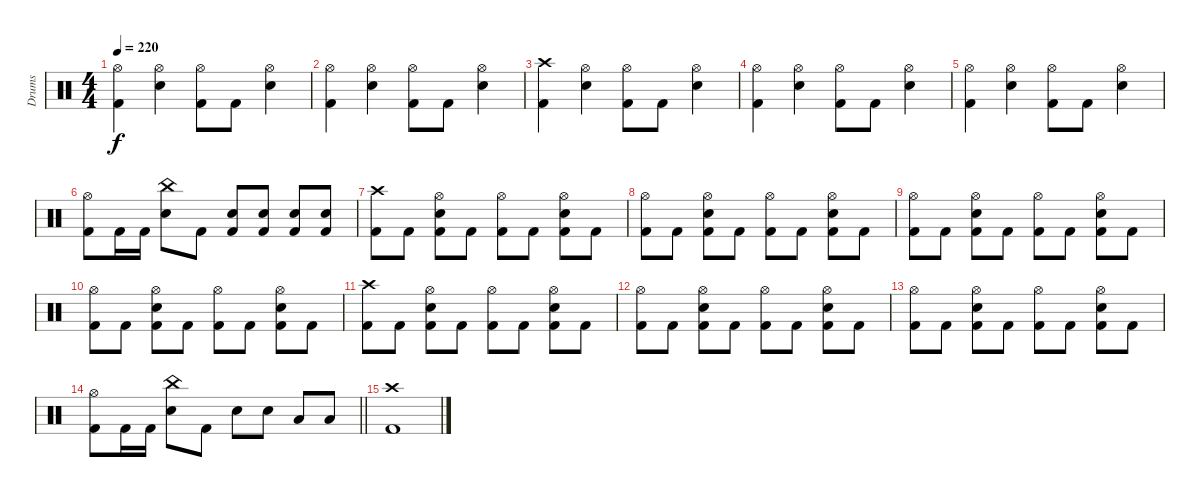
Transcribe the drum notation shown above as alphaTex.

\track ("Drums" "Drums") {instrument percussion}
\staff {score}
\articulation defaults
\ts (4 4)
\tempo 220
\clef neutral
\ks c
("Hi-Hat (open)" "Kick (hit) 2").4{dy f} ("Hi-Hat (open)" "Snare (hit) 2").4 ("Hi-Hat (open)" "Kick (hit) 2").8 "Kick (hit) 2".8 ("Hi-Hat (open)" "Snare (hit) 2").4 |
("Hi-Hat (open)" "Kick (hit) 2").4 ("Hi-Hat (open)" "Snare (hit) 2").4 ("Hi-Hat (open)" "Kick (hit) 2").8 "Kick (hit) 2".8 ("Hi-Hat (open)" "Snare (hit) 2").4 |
("Crash high (hit)" "Kick (hit) 2").4 ("Hi-Hat (open)" "Snare (hit) 2").4 ("Hi-Hat (open)" "Kick (hit) 2").8 "Kick (hit) 2".8 ("Hi-Hat (open)" "Snare (hit) 2").4 |
("Hi-Hat (open)" "Kick (hit) 2").4 ("Hi-Hat (open)" "Snare (hit) 2").4 ("Hi-Hat (open)" "Kick (hit) 2").8 "Kick (hit) 2".8 ("Hi-Hat (open)" "Snare (hit) 2").4 |
("Hi-Hat (open)" "Kick (hit) 2").4 ("Hi-Hat (open)" "Snare (hit) 2").4 ("Hi-Hat (open)" "Kick (hit) 2").8 "Kick (hit) 2".8 ("Hi-Hat (open)" "Snare (hit) 2").4 |
("Hi-Hat (open)" "Kick (hit) 2").8 "Kick (hit) 2".16 "Kick (hit) 2".16 ("China (hit)" "Snare (hit) 2").8 "Kick (hit) 2".8 ("Snare (hit) 2" "Kick (hit) 2").8 ("Snare (hit) 2" "Kick (hit) 2").8 ("Snare (hit) 2" "Kick (hit) 2").8 ("Snare (hit) 2" "Kick (hit) 2").8 |
("Crash high (hit)" "Kick (hit) 2").8 "Kick (hit) 2".8 ("Hi-Hat (open)" "Snare (hit) 2" "Kick (hit) 2").8 "Kick (hit) 2".8 ("Hi-Hat (open)" "Kick (hit) 2").8 "Kick (hit) 2".8 ("Hi-Hat (open)" "Snare (hit) 2" "Kick (hit) 2").8 "Kick (hit) 2".8 |
("Hi-Hat (open)" "Kick (hit) 2").8 "Kick (hit) 2".8 ("Hi-Hat (open)" "Snare (hit) 2" "Kick (hit) 2").8 "Kick (hit) 2".8 ("Hi-Hat (open)" "Kick (hit) 2").8 "Kick (hit) 2".8 ("Hi-Hat (open)" "Snare (hit) 2" "Kick (hit) 2").8 "Kick (hit) 2".8 |
("Hi-Hat (open)" "Kick (hit) 2").8 "Kick (hit) 2".8 ("Hi-Hat (open)" "Snare (hit) 2" "Kick (hit) 2").8 "Kick (hit) 2".8 ("Hi-Hat (open)" "Kick (hit) 2").8 "Kick (hit) 2".8 ("Hi-Hat (open)" "Snare (hit) 2" "Kick (hit) 2").8 "Kick (hit) 2".8 |
("Hi-Hat (open)" "Kick (hit) 2").8 "Kick (hit) 2".8 ("Hi-Hat (open)" "Snare (hit) 2" "Kick (hit) 2").8 "Kick (hit) 2".8 ("Hi-Hat (open)" "Kick (hit) 2").8 "Kick (hit) 2".8 ("Hi-Hat (open)" "Snare (hit) 2" "Kick (hit) 2").8 "Kick (hit) 2".8 |
("Crash high (hit)" "Kick (hit) 2").8 "Kick (hit) 2".8 ("Hi-Hat (open)" "Snare (hit) 2" "Kick (hit) 2").8 "Kick (hit) 2".8 ("Hi-Hat (open)" "Kick (hit) 2").8 "Kick (hit) 2".8 ("Hi-Hat (open)" "Snare (hit) 2" "Kick (hit) 2").8 "Kick (hit) 2".8 |
("Hi-Hat (open)" "Kick (hit) 2").8 "Kick (hit) 2".8 ("Hi-Hat (open)" "Snare (hit) 2" "Kick (hit) 2").8 "Kick (hit) 2".8 ("Hi-Hat (open)" "Kick (hit) 2").8 "Kick (hit) 2".8 ("Hi-Hat (open)" "Snare (hit) 2" "Kick (hit) 2").8 "Kick (hit) 2".8 |
("Hi-Hat (open)" "Kick (hit) 2").8 "Kick (hit) 2".8 ("Hi-Hat (open)" "Snare (hit) 2" "Kick (hit) 2").8 "Kick (hit) 2".8 ("Hi-Hat (open)" "Kick (hit) 2").8 "Kick (hit) 2".8 ("Hi-Hat (open)" "Snare (hit) 2" "Kick (hit) 2").8 "Kick (hit) 2".8 |
\barLineRight lightlight
("Hi-Hat (open)" "Kick (hit) 2").8 "Kick (hit) 2".16 "Kick (hit) 2".16 ("China (hit)" "Snare (hit) 2").8 "Kick (hit) 2".8 "Snare (hit) 2".8 "Snare (hit) 2".8 "Low Tom (hit)".8 "Low Tom (hit)".8 |
("Crash high (hit)" "Kick (hit) 2").1
